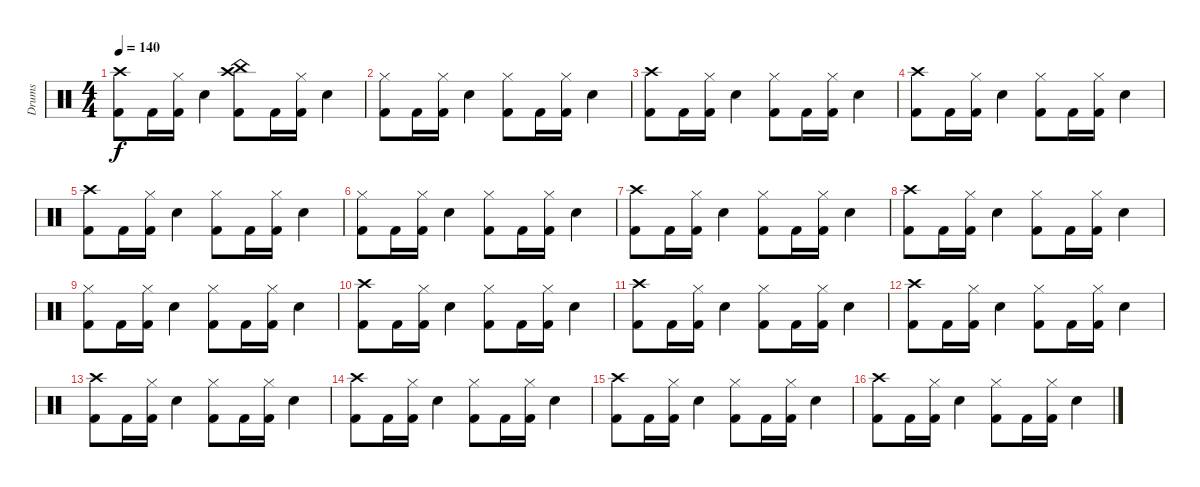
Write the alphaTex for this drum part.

\track ("Drums" "Drums") {instrument percussion}
\staff {score}
\articulation defaults
\ts (4 4)
\tempo 140
\clef neutral
\ks c
("Crash high (hit)" "Kick (hit) 2").8{dy f} "Kick (hit) 2".16 ("Hi-Hat (closed)" "Kick (hit) 2").16 "Electric Snare (hit)".4 ("China (hit)" "Crash high (hit)" "Kick (hit) 2").8 "Kick (hit) 2".16 ("Hi-Hat (closed)" "Kick (hit) 2").16 "Electric Snare (hit)".4 |
("Hi-Hat (closed)" "Kick (hit) 2").8 "Kick (hit) 2".16 ("Hi-Hat (closed)" "Kick (hit) 2").16 "Electric Snare (hit)".4 ("Hi-Hat (closed)" "Kick (hit) 2").8 "Kick (hit) 2".16 ("Hi-Hat (closed)" "Kick (hit) 2").16 "Electric Snare (hit)".4 |
("Crash high (hit)" "Kick (hit) 2").8 "Kick (hit) 2".16 ("Hi-Hat (closed)" "Kick (hit) 2").16 "Electric Snare (hit)".4 ("Hi-Hat (closed)" "Kick (hit) 2").8 "Kick (hit) 2".16 ("Hi-Hat (closed)" "Kick (hit) 2").16 "Electric Snare (hit)".4 |
("Crash high (hit)" "Kick (hit) 2").8 "Kick (hit) 2".16 ("Hi-Hat (closed)" "Kick (hit) 2").16 "Electric Snare (hit)".4 ("Hi-Hat (closed)" "Kick (hit) 2").8 "Kick (hit) 2".16 ("Hi-Hat (closed)" "Kick (hit) 2").16 "Electric Snare (hit)".4 |
("Crash high (hit)" "Kick (hit) 2").8 "Kick (hit) 2".16 ("Hi-Hat (closed)" "Kick (hit) 2").16 "Electric Snare (hit)".4 ("Hi-Hat (closed)" "Kick (hit) 2").8 "Kick (hit) 2".16 ("Hi-Hat (closed)" "Kick (hit) 2").16 "Electric Snare (hit)".4 |
("Hi-Hat (closed)" "Kick (hit) 2").8 "Kick (hit) 2".16 ("Hi-Hat (closed)" "Kick (hit) 2").16 "Electric Snare (hit)".4 ("Hi-Hat (closed)" "Kick (hit) 2").8 "Kick (hit) 2".16 ("Hi-Hat (closed)" "Kick (hit) 2").16 "Electric Snare (hit)".4 |
("Crash high (hit)" "Kick (hit) 2").8 "Kick (hit) 2".16 ("Hi-Hat (closed)" "Kick (hit) 2").16 "Electric Snare (hit)".4 ("Hi-Hat (closed)" "Kick (hit) 2").8 "Kick (hit) 2".16 ("Hi-Hat (closed)" "Kick (hit) 2").16 "Electric Snare (hit)".4 |
("Crash high (hit)" "Kick (hit) 2").8 "Kick (hit) 2".16 ("Hi-Hat (closed)" "Kick (hit) 2").16 "Electric Snare (hit)".4 ("Hi-Hat (closed)" "Kick (hit) 2").8 "Kick (hit) 2".16 ("Hi-Hat (closed)" "Kick (hit) 2").16 "Electric Snare (hit)".4 |
("Hi-Hat (closed)" "Kick (hit) 2").8 "Kick (hit) 2".16 ("Hi-Hat (closed)" "Kick (hit) 2").16 "Electric Snare (hit)".4 ("Hi-Hat (closed)" "Kick (hit) 2").8 "Kick (hit) 2".16 ("Hi-Hat (closed)" "Kick (hit) 2").16 "Electric Snare (hit)".4 |
("Crash high (hit)" "Kick (hit) 2").8 "Kick (hit) 2".16 ("Hi-Hat (closed)" "Kick (hit) 2").16 "Electric Snare (hit)".4 ("Hi-Hat (closed)" "Kick (hit) 2").8 "Kick (hit) 2".16 ("Hi-Hat (closed)" "Kick (hit) 2").16 "Electric Snare (hit)".4 |
("Crash high (hit)" "Kick (hit) 2").8 "Kick (hit) 2".16 ("Hi-Hat (closed)" "Kick (hit) 2").16 "Electric Snare (hit)".4 ("Hi-Hat (closed)" "Kick (hit) 2").8 "Kick (hit) 2".16 ("Hi-Hat (closed)" "Kick (hit) 2").16 "Electric Snare (hit)".4 |
("Crash high (hit)" "Kick (hit) 2").8 "Kick (hit) 2".16 ("Hi-Hat (closed)" "Kick (hit) 2").16 "Electric Snare (hit)".4 ("Hi-Hat (closed)" "Kick (hit) 2").8 "Kick (hit) 2".16 ("Hi-Hat (closed)" "Kick (hit) 2").16 "Electric Snare (hit)".4 |
("Crash high (hit)" "Kick (hit) 2").8 "Kick (hit) 2".16 ("Hi-Hat (closed)" "Kick (hit) 2").16 "Electric Snare (hit)".4 ("Hi-Hat (closed)" "Kick (hit) 2").8 "Kick (hit) 2".16 ("Hi-Hat (closed)" "Kick (hit) 2").16 "Electric Snare (hit)".4 |
("Crash high (hit)" "Kick (hit) 2").8 "Kick (hit) 2".16 ("Hi-Hat (closed)" "Kick (hit) 2").16 "Electric Snare (hit)".4 ("Hi-Hat (closed)" "Kick (hit) 2").8 "Kick (hit) 2".16 ("Hi-Hat (closed)" "Kick (hit) 2").16 "Electric Snare (hit)".4 |
("Crash high (hit)" "Kick (hit) 2").8 "Kick (hit) 2".16 ("Hi-Hat (closed)" "Kick (hit) 2").16 "Electric Snare (hit)".4 ("Hi-Hat (closed)" "Kick (hit) 2").8 "Kick (hit) 2".16 ("Hi-Hat (closed)" "Kick (hit) 2").16 "Electric Snare (hit)".4 |
("Crash high (hit)" "Kick (hit) 2").8 "Kick (hit) 2".16 ("Hi-Hat (closed)" "Kick (hit) 2").16 "Electric Snare (hit)".4 ("Hi-Hat (closed)" "Kick (hit) 2").8 "Kick (hit) 2".16 ("Hi-Hat (closed)" "Kick (hit) 2").16 "Electric Snare (hit)".4
